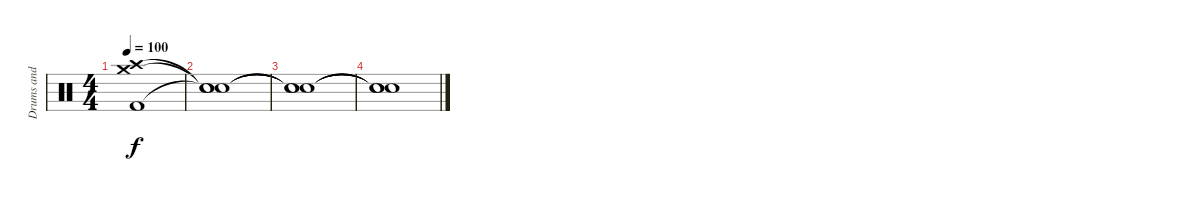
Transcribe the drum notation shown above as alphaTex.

\track ("Drums and Percussion" "Drums and ") {instrument percussion}
\staff {score}
\articulation defaults
\ts (4 4)
\tempo 100
\clef neutral
\ks c
("Crash medium (hit)" "Crash high (hit)" "Kick (hit) 2").1{dy f volume 0} |
("Snare (hit)"{t} "Snare (hit)"{t} "Snare (hit)"{t}).1 |
("Snare (hit)"{t} "Snare (hit)"{t} "Snare (hit)"{t}).1 |
("Snare (hit)"{t} "Snare (hit)"{t} "Snare (hit)"{t}).1
